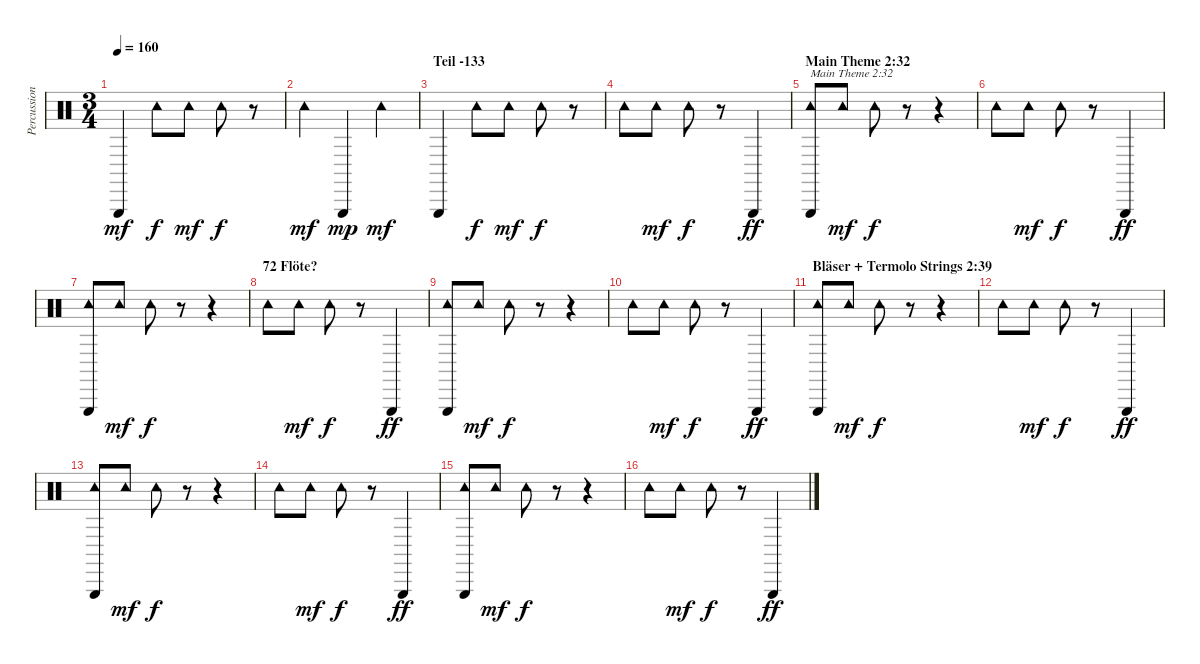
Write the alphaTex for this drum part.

\track ("Percussion" "Percussion") {instrument percussion}
\staff {score}
\articulation defaults
\ts (3 4)
\tempo 160
\clef neutral
\ks c "Triangle (hit)".4{dy mf} "Tambourine (hit)".8{dy f} "Tambourine (hit)".8{dy mf} "Tambourine (hit)".8{dy f}
r.8 |
"Tambourine (hit)".4{dy mf} "Triangle (hit)".4{dy mp} "Tambourine (hit)".4{dy mf} |
\section ("" "Teil -133")
"Triangle (hit)".4 "Tambourine (hit)".8{dy f} "Tambourine (hit)".8{dy mf} "Tambourine (hit)".8{dy f} r.8 |
"Tambourine (hit)".8 "Tambourine (hit)".8{dy mf} "Tambourine (hit)".8{dy f} r.8 "Triangle (hit)".4{dy ff} |
\section ("" "Main Theme 2:32")
("Tambourine (hit)" "Triangle (hit)").8{txt "Main Theme 2:32"} "Tambourine (hit)".8{dy mf} "Tambourine (hit)".8{dy f} r.8 r.4 |
"Tambourine (hit)".8 "Tambourine (hit)".8{dy mf} "Tambourine (hit)".8{dy f} r.8 "Triangle (hit)".4{dy ff} |
("Tambourine (hit)" "Triangle (hit)").8 "Tambourine (hit)".8{dy mf} "Tambourine (hit)".8{dy f} r.8 r.4 |
\section ("" "72 Flöte?")
"Tambourine (hit)".8 "Tambourine (hit)".8{dy mf} "Tambourine (hit)".8{dy f} r.8 "Triangle (hit)".4{dy ff} |
("Tambourine (hit)" "Triangle (hit)").8 "Tambourine (hit)".8{dy mf} "Tambourine (hit)".8{dy f} r.8 r.4 |
"Tambourine (hit)".8 "Tambourine (hit)".8{dy mf} "Tambourine (hit)".8{dy f} r.8 "Triangle (hit)".4{dy ff} |
\section ("" "Bläser + Termolo Strings 2:39")
("Tambourine (hit)" "Triangle (hit)").8 "Tambourine (hit)".8{dy mf} "Tambourine (hit)".8{dy f} r.8 r.4 |
"Tambourine (hit)".8 "Tambourine (hit)".8{dy mf} "Tambourine (hit)".8{dy f} r.8 "Triangle (hit)".4{dy ff} |
("Tambourine (hit)" "Triangle (hit)").8 "Tambourine (hit)".8{dy mf} "Tambourine (hit)".8{dy f} r.8 r.4 |
"Tambourine (hit)".8 "Tambourine (hit)".8{dy mf} "Tambourine (hit)".8{dy f} r.8 "Triangle (hit)".4{dy ff} |
("Tambourine (hit)" "Triangle (hit)").8 "Tambourine (hit)".8{dy mf} "Tambourine (hit)".8{dy f} r.8 r.4 |
"Tambourine (hit)".8 "Tambourine (hit)".8{dy mf} "Tambourine (hit)".8{dy f} r.8 "Triangle (hit)".4{dy ff}
